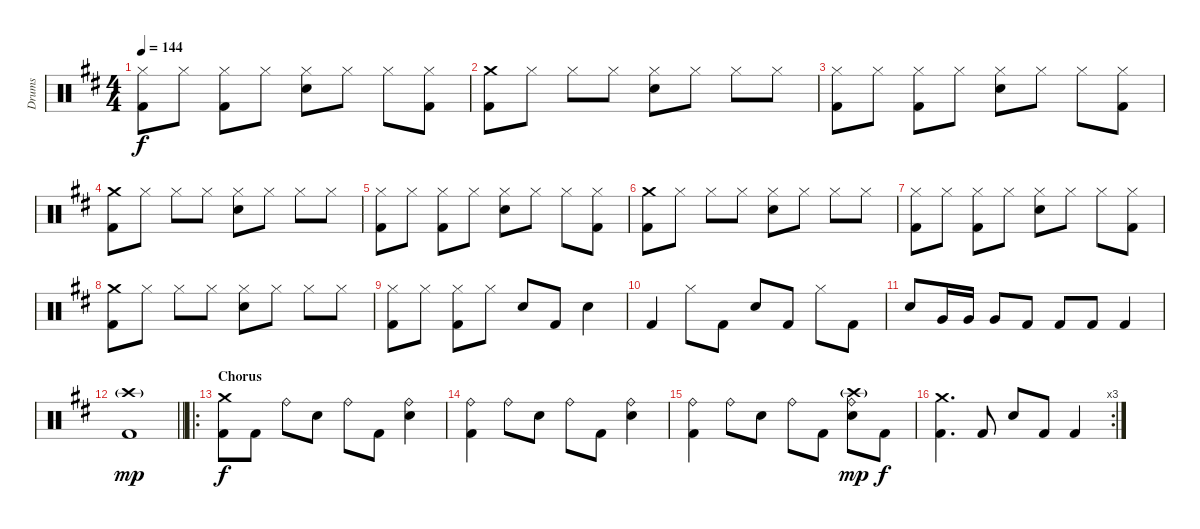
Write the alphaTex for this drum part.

\track ("Drums" "Drums") {instrument percussion}
\staff {score}
\articulation defaults
\ts (4 4)
\tempo 144
\clef neutral
\ks d
("Hi-Hat (closed)" "Kick (hit) 2").8{dy f} "Hi-Hat (closed)".8 ("Hi-Hat (closed)" "Kick (hit) 2").8 "Hi-Hat (closed)".8 ("Hi-Hat (closed)" "Snare (hit) 2").8 "Hi-Hat (closed)".8 "Hi-Hat (closed)".8 ("Hi-Hat (closed)" "Kick (hit) 2").8 |
("Crash medium (hit)" "Kick (hit) 2").8 "Hi-Hat (closed)".8 "Hi-Hat (closed)".8 "Hi-Hat (closed)".8 ("Hi-Hat (closed)" "Snare (hit) 2").8 "Hi-Hat (closed)".8 "Hi-Hat (closed)".8 "Hi-Hat (closed)".8 |
("Hi-Hat (closed)" "Kick (hit) 2").8 "Hi-Hat (closed)".8 ("Hi-Hat (closed)" "Kick (hit) 2").8 "Hi-Hat (closed)".8 ("Hi-Hat (closed)" "Snare (hit) 2").8 "Hi-Hat (closed)".8 "Hi-Hat (closed)".8 ("Hi-Hat (closed)" "Kick (hit) 2").8 |
("Crash medium (hit)" "Kick (hit) 2").8 "Hi-Hat (closed)".8 "Hi-Hat (closed)".8 "Hi-Hat (closed)".8 ("Hi-Hat (closed)" "Snare (hit) 2").8 "Hi-Hat (closed)".8 "Hi-Hat (closed)".8 "Hi-Hat (closed)".8 |
("Hi-Hat (closed)" "Kick (hit) 2").8 "Hi-Hat (closed)".8 ("Hi-Hat (closed)" "Kick (hit) 2").8 "Hi-Hat (closed)".8 ("Hi-Hat (closed)" "Snare (hit) 2").8 "Hi-Hat (closed)".8 "Hi-Hat (closed)".8 ("Hi-Hat (closed)" "Kick (hit) 2").8 |
("Crash medium (hit)" "Kick (hit) 2").8 "Hi-Hat (closed)".8 "Hi-Hat (closed)".8 "Hi-Hat (closed)".8 ("Hi-Hat (closed)" "Snare (hit) 2").8 "Hi-Hat (closed)".8 "Hi-Hat (closed)".8 "Hi-Hat (closed)".8 |
("Hi-Hat (closed)" "Kick (hit) 2").8 "Hi-Hat (closed)".8 ("Hi-Hat (closed)" "Kick (hit) 2").8 "Hi-Hat (closed)".8 ("Hi-Hat (closed)" "Snare (hit) 2").8 "Hi-Hat (closed)".8 "Hi-Hat (closed)".8 ("Hi-Hat (closed)" "Kick (hit) 2").8 |
("Crash medium (hit)" "Kick (hit) 2").8 "Hi-Hat (closed)".8 "Hi-Hat (closed)".8 "Hi-Hat (closed)".8 ("Hi-Hat (closed)" "Snare (hit) 2").8 "Hi-Hat (closed)".8 "Hi-Hat (closed)".8 "Hi-Hat (closed)".8 |
("Hi-Hat (closed)" "Kick (hit) 2").8 "Hi-Hat (closed)".8 ("Hi-Hat (closed)" "Kick (hit) 2").8 "Hi-Hat (closed)".8 "Snare (hit) 2".8 "Kick (hit) 2".8 "Snare (hit) 2".4 |
"Kick (hit) 2".4 "Hi-Hat (closed)".8 "Kick (hit) 2".8 "Snare (hit) 2".8 "Kick (hit) 2".8 "Hi-Hat (closed)".8 "Kick (hit) 2".8 |
"Snare (hit) 2".8 "Very Low Tom (hit)".16 "Very Low Tom (hit)".16 "Very Low Tom (hit)".8 "Kick (hit) 2".8 "Kick (hit) 2".8 "Kick (hit) 2".8 "Kick (hit) 2".4 |
\barLineRight lightlight
("Crash high (hit)"{g} "Kick (hit) 2").1{dy mp} |
\ro
\section ("" "Chorus")
("Crash medium (hit)" "Kick (hit) 2").8{dy f} "Kick (hit) 2".8 "Ride (bell)".8 "Snare (hit) 2".8 "Ride (bell)".8 "Kick (hit) 2".8 ("Ride (bell)" "Snare (hit) 2").4 |
("Ride (bell)" "Kick (hit) 2").4 "Ride (bell)".8 "Snare (hit) 2".8 "Ride (bell)".8 "Kick (hit) 2".8 ("Ride (bell)" "Snare (hit) 2").4 |
("Ride (bell)" "Kick (hit) 2").4 "Ride (bell)".8 "Snare (hit) 2".8 "Ride (bell)".8 "Kick (hit) 2".8 ("Crash high (hit)"{g} "Ride (bell)" "Snare (hit) 2").8{dy mp} "Kick (hit) 2".8{dy f} |
\rc 3
("Crash medium (hit)" "Kick (hit) 2").4{d} "Kick (hit) 2".8 "Snare (hit) 2".8 "Kick (hit) 2".8 "Kick (hit) 2".4
